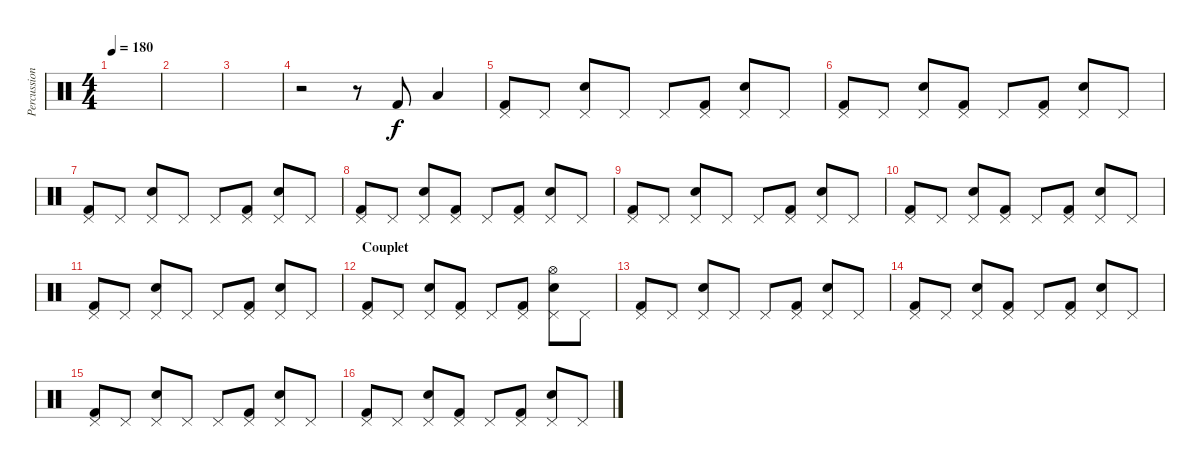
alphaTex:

\track ("Percussions" "Percussion") {instrument percussion}
\staff {score}
\articulation defaults
\ts (4 4)
\tempo 180
\clef neutral
\ks c
|
|
|
r.2 r.8 "Kick (hit) 2".8 "Low Tom (hit)".4 |
("Pedal Hi-Hat (hit)" "Kick (hit) 2").8 "Pedal Hi-Hat (hit)".8 ("Pedal Hi-Hat (hit)" "Electric Snare (hit)").8 "Pedal Hi-Hat (hit)".8 "Pedal Hi-Hat (hit)".8 ("Pedal Hi-Hat (hit)" "Kick (hit) 2").8 ("Pedal Hi-Hat (hit)" "Electric Snare (hit)").8 "Pedal Hi-Hat (hit)".8 |
("Pedal Hi-Hat (hit)" "Kick (hit) 2").8 "Pedal Hi-Hat (hit)".8 ("Pedal Hi-Hat (hit)" "Electric Snare (hit)").8 ("Pedal Hi-Hat (hit)" "Kick (hit) 2").8 "Pedal Hi-Hat (hit)".8 ("Pedal Hi-Hat (hit)" "Kick (hit) 2").8 ("Pedal Hi-Hat (hit)" "Electric Snare (hit)").8 "Pedal Hi-Hat (hit)".8 |
("Pedal Hi-Hat (hit)" "Kick (hit) 2").8 "Pedal Hi-Hat (hit)".8 ("Pedal Hi-Hat (hit)" "Electric Snare (hit)").8 "Pedal Hi-Hat (hit)".8 "Pedal Hi-Hat (hit)".8 ("Pedal Hi-Hat (hit)" "Kick (hit) 2").8 ("Pedal Hi-Hat (hit)" "Electric Snare (hit)").8 "Pedal Hi-Hat (hit)".8 |
("Pedal Hi-Hat (hit)" "Kick (hit) 2").8 "Pedal Hi-Hat (hit)".8 ("Pedal Hi-Hat (hit)" "Electric Snare (hit)").8 ("Pedal Hi-Hat (hit)" "Kick (hit) 2").8 "Pedal Hi-Hat (hit)".8 ("Pedal Hi-Hat (hit)" "Kick (hit) 2").8 ("Pedal Hi-Hat (hit)" "Electric Snare (hit)").8 "Pedal Hi-Hat (hit)".8 |
("Pedal Hi-Hat (hit)" "Kick (hit) 2").8 "Pedal Hi-Hat (hit)".8 ("Pedal Hi-Hat (hit)" "Electric Snare (hit)").8 "Pedal Hi-Hat (hit)".8 "Pedal Hi-Hat (hit)".8 ("Pedal Hi-Hat (hit)" "Kick (hit) 2").8 ("Pedal Hi-Hat (hit)" "Electric Snare (hit)").8 "Pedal Hi-Hat (hit)".8 |
("Pedal Hi-Hat (hit)" "Kick (hit) 2").8 "Pedal Hi-Hat (hit)".8 ("Pedal Hi-Hat (hit)" "Electric Snare (hit)").8 ("Pedal Hi-Hat (hit)" "Kick (hit) 2").8 "Pedal Hi-Hat (hit)".8 ("Pedal Hi-Hat (hit)" "Kick (hit) 2").8 ("Pedal Hi-Hat (hit)" "Electric Snare (hit)").8 "Pedal Hi-Hat (hit)".8 |
("Pedal Hi-Hat (hit)" "Kick (hit) 2").8 "Pedal Hi-Hat (hit)".8 ("Pedal Hi-Hat (hit)" "Electric Snare (hit)").8 "Pedal Hi-Hat (hit)".8 "Pedal Hi-Hat (hit)".8 ("Pedal Hi-Hat (hit)" "Kick (hit) 2").8 ("Pedal Hi-Hat (hit)" "Electric Snare (hit)").8 "Pedal Hi-Hat (hit)".8 |
\section ("" "Couplet")
("Pedal Hi-Hat (hit)" "Kick (hit) 2").8 "Pedal Hi-Hat (hit)".8 ("Pedal Hi-Hat (hit)" "Electric Snare (hit)").8 ("Pedal Hi-Hat (hit)" "Kick (hit) 2").8 "Pedal Hi-Hat (hit)".8 ("Pedal Hi-Hat (hit)" "Kick (hit) 2").8 ("Pedal Hi-Hat (hit)" "Hi-Hat (open)" "Electric Snare (hit)").8 "Pedal Hi-Hat (hit)".8 |
("Pedal Hi-Hat (hit)" "Kick (hit) 2").8 "Pedal Hi-Hat (hit)".8 ("Pedal Hi-Hat (hit)" "Electric Snare (hit)").8 "Pedal Hi-Hat (hit)".8 "Pedal Hi-Hat (hit)".8 ("Pedal Hi-Hat (hit)" "Kick (hit) 2").8 ("Pedal Hi-Hat (hit)" "Electric Snare (hit)").8 "Pedal Hi-Hat (hit)".8 |
("Pedal Hi-Hat (hit)" "Kick (hit) 2").8 "Pedal Hi-Hat (hit)".8 ("Pedal Hi-Hat (hit)" "Electric Snare (hit)").8 ("Pedal Hi-Hat (hit)" "Kick (hit) 2").8 "Pedal Hi-Hat (hit)".8 ("Pedal Hi-Hat (hit)" "Kick (hit) 2").8 ("Pedal Hi-Hat (hit)" "Electric Snare (hit)").8 "Pedal Hi-Hat (hit)".8 |
("Pedal Hi-Hat (hit)" "Kick (hit) 2").8 "Pedal Hi-Hat (hit)".8 ("Pedal Hi-Hat (hit)" "Electric Snare (hit)").8 "Pedal Hi-Hat (hit)".8 "Pedal Hi-Hat (hit)".8 ("Pedal Hi-Hat (hit)" "Kick (hit) 2").8 ("Pedal Hi-Hat (hit)" "Electric Snare (hit)").8 "Pedal Hi-Hat (hit)".8 |
("Pedal Hi-Hat (hit)" "Kick (hit) 2").8 "Pedal Hi-Hat (hit)".8 ("Pedal Hi-Hat (hit)" "Electric Snare (hit)").8 ("Pedal Hi-Hat (hit)" "Kick (hit) 2").8 "Pedal Hi-Hat (hit)".8 ("Pedal Hi-Hat (hit)" "Kick (hit) 2").8 ("Pedal Hi-Hat (hit)" "Electric Snare (hit)").8 "Pedal Hi-Hat (hit)".8
